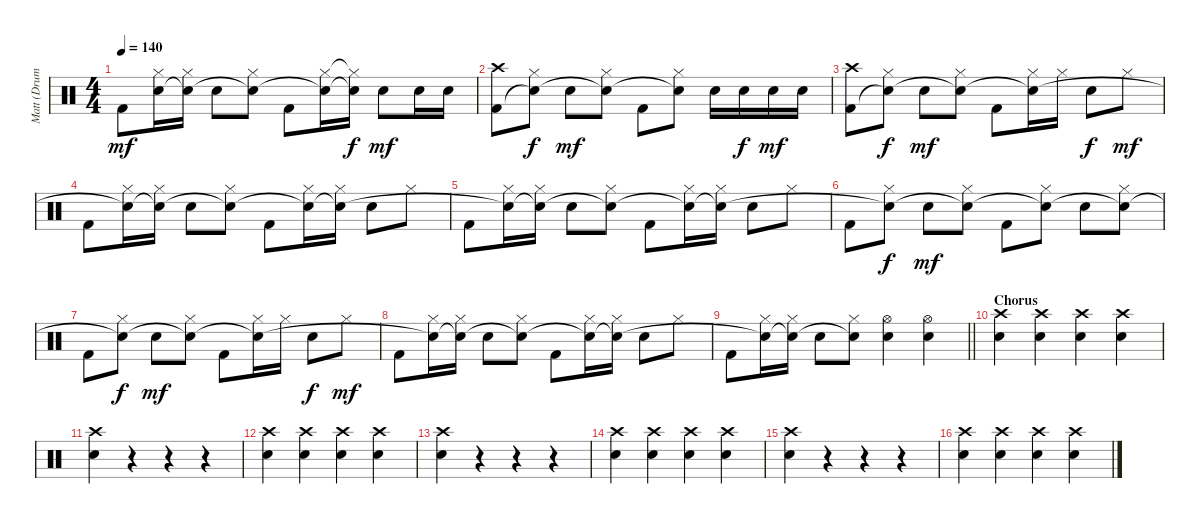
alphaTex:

\track ("Matt (Drums)" "Matt (Drum") {instrument percussion}
\staff {score}
\articulation defaults
\ts (4 4)
\tempo 140
\clef neutral
\ks c "Kick (hit) 2".8{dy mf}
("Hi-Hat (closed)" "Snare (hit)"{t}).16 ("Hi-Hat (closed)" "Snare (hit)"{t}).16 "Snare (hit) 2".8 ("Hi-Hat (closed)" "Snare (hit)"{t}).8 "Kick (hit) 2".8 ("Hi-Hat (closed)" "Snare (hit)"{t}).16 ("Hi-Hat (closed)"{t} "Snare (hit)"{t}).16{dy f} "Snare (hit) 2".8{dy mf} "Snare (hit) 2".16 "Snare (hit) 2".16 |
("Crash high (hit)" "Kick (hit) 2").8 ("Hi-Hat (closed)" "Snare (hit)"{t}).8{dy f} "Snare (hit) 2".8{dy mf} ("Hi-Hat (closed)" "Snare (hit)"{t}).8 "Kick (hit) 2".8 ("Hi-Hat (closed)" "Snare (hit)"{t}).8 "Snare (hit) 2".16 "Snare (hit) 2".16{dy f} "Snare (hit) 2".16{dy mf} "Snare (hit) 2".16 |
("Crash high (hit)" "Kick (hit) 2").8 ("Hi-Hat (closed)" "Snare (hit)"{t}).8{dy f} "Snare (hit) 2".8{dy mf} ("Hi-Hat (closed)" "Snare (hit)"{t}).8 "Kick (hit) 2".8 ("Hi-Hat (closed)" "Snare (hit)"{t}).16 "Hi-Hat (closed)".16 "Snare (hit) 2".8{dy f} "Hi-Hat (closed)".8{dy mf} |
"Kick (hit) 2".8 ("Hi-Hat (closed)" "Snare (hit)"{t}).16 ("Hi-Hat (closed)" "Snare (hit)"{t}).16 "Snare (hit) 2".8 ("Hi-Hat (closed)" "Snare (hit)"{t}).8 "Kick (hit) 2".8 ("Hi-Hat (closed)" "Snare (hit)"{t}).16 ("Hi-Hat (closed)" "Snare (hit)"{t}).16 "Snare (hit) 2".8 "Hi-Hat (closed)".8 |
"Kick (hit) 2".8 ("Hi-Hat (closed)" "Snare (hit)"{t}).16 ("Hi-Hat (closed)" "Snare (hit)"{t}).16 "Snare (hit) 2".8 ("Hi-Hat (closed)" "Snare (hit)"{t}).8 "Kick (hit) 2".8 ("Hi-Hat (closed)" "Snare (hit)"{t}).16 ("Hi-Hat (closed)" "Snare (hit)"{t}).16 "Snare (hit) 2".8 "Hi-Hat (closed)".8 |
"Kick (hit) 2".8 ("Hi-Hat (closed)" "Snare (hit)"{t}).8{dy f} "Snare (hit) 2".8{dy mf} ("Hi-Hat (closed)" "Snare (hit)"{t}).8 "Kick (hit) 2".8 ("Hi-Hat (closed)" "Snare (hit)"{t}).8 "Snare (hit) 2".8 ("Hi-Hat (closed)" "Snare (hit)"{t}).8 |
"Kick (hit) 2".8 ("Hi-Hat (closed)" "Snare (hit)"{t}).8{dy f} "Snare (hit) 2".8{dy mf} ("Hi-Hat (closed)" "Snare (hit)"{t}).8 "Kick (hit) 2".8 ("Hi-Hat (closed)" "Snare (hit)"{t}).16 "Hi-Hat (closed)".16 "Snare (hit) 2".8{dy f} "Hi-Hat (closed)".8{dy mf} |
"Kick (hit) 2".8 ("Hi-Hat (closed)" "Snare (hit)"{t}).16 ("Hi-Hat (closed)" "Snare (hit)"{t}).16 "Snare (hit) 2".8 ("Hi-Hat (closed)" "Snare (hit)"{t}).8 "Kick (hit) 2".8 ("Hi-Hat (closed)" "Snare (hit)"{t}).16 ("Hi-Hat (closed)" "Snare (hit)"{t}).16 "Snare (hit) 2".8 "Hi-Hat (closed)".8 |
\barLineRight lightlight "Kick (hit) 2".8
("Hi-Hat (closed)" "Snare (hit)"{t}).16 ("Hi-Hat (closed)" "Snare (hit)"{t}).16 "Snare (hit) 2".8 ("Hi-Hat (closed)" "Snare (hit)"{t}).8 ("Hi-Hat (open)" "Snare (hit) 2").4 ("Hi-Hat (open)" "Snare (hit) 2").4 |
\section ("" "Chorus")
("Crash high (hit)" "Snare (hit) 2").4 ("Crash high (hit)" "Snare (hit) 2").4 ("Crash high (hit)" "Snare (hit) 2").4 ("Crash high (hit)" "Snare (hit) 2").4 |
("Crash high (hit)" "Snare (hit) 2").4 r.4 r.4 r.4 |
("Crash high (hit)" "Snare (hit) 2").4 ("Crash high (hit)" "Snare (hit) 2").4 ("Crash high (hit)" "Snare (hit) 2").4 ("Crash high (hit)" "Snare (hit) 2").4 |
("Crash high (hit)" "Snare (hit) 2").4 r.4 r.4 r.4 |
("Crash high (hit)" "Snare (hit) 2").4 ("Crash high (hit)" "Snare (hit) 2").4 ("Crash high (hit)" "Snare (hit) 2").4 ("Crash high (hit)" "Snare (hit) 2").4 |
("Crash high (hit)" "Snare (hit) 2").4 r.4 r.4 r.4 |
("Crash high (hit)" "Snare (hit) 2").4 ("Crash high (hit)" "Snare (hit) 2").4 ("Crash high (hit)" "Snare (hit) 2").4 ("Crash high (hit)" "Snare (hit) 2").4
